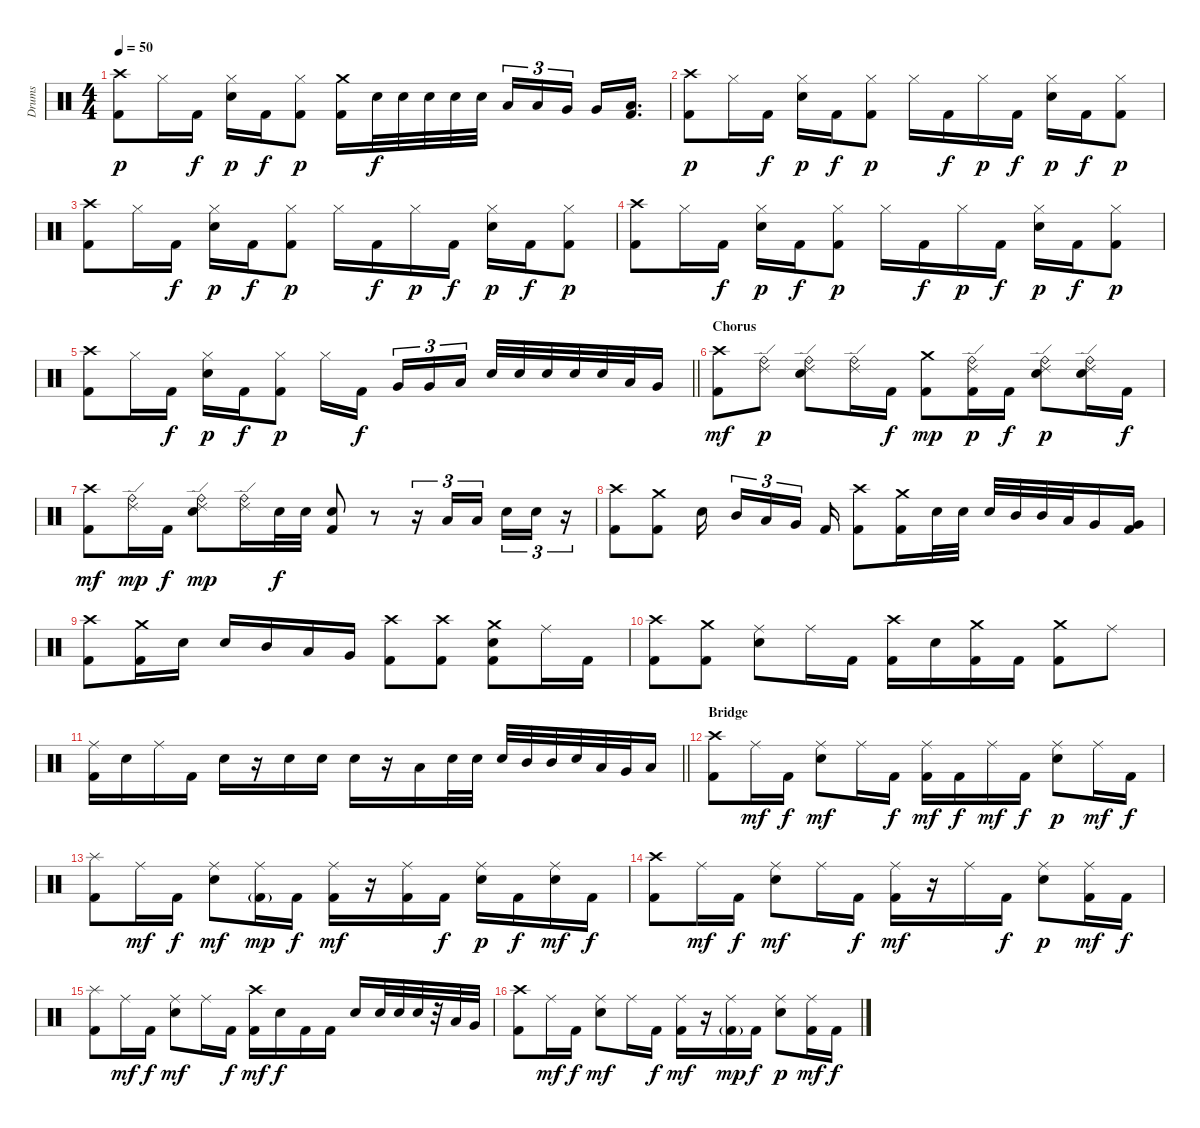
\track ("Drums" "Drums") {instrument percussion}
\staff {score}
\articulation defaults
\ts (4 4)
\tempo 50
\clef neutral
\ks c
("Crash high (hit)" "Kick (hit) 2").8{dy p} "Hi-Hat (closed)".16 "Kick (hit) 2".16{dy f} ("Hi-Hat (closed)" "Electric Snare (hit)").16{dy p} "Kick (hit) 2".16{dy f} ("Hi-Hat (closed)" "Kick (hit) 2").8{dy p} ("Crash medium (hit)" "Kick (hit) 2").16 "Electric Snare (hit)".32{dy f} "Electric Snare (hit)".32 "Electric Snare (hit)".32 "Electric Snare (hit)".32 "Electric Snare (hit)".32{beam splitsecondary} "Low Tom (hit)".16{tu (3 2)} "Low Tom (hit)".16{tu (3 2)} "Very Low Tom (hit)".16{tu (3 2) beam splitsecondary} "Very Low Tom (hit)".16 ("Low Floor Tom (hit)" "Kick (hit) 2").16{d} |
("Crash high (hit)" "Kick (hit) 2").8{dy p} "Hi-Hat (closed)".16 "Kick (hit) 2".16{dy f} ("Hi-Hat (closed)" "Electric Snare (hit)").16{dy p} "Kick (hit) 2".16{dy f} ("Hi-Hat (closed)" "Kick (hit) 2").8{dy p} "Hi-Hat (closed)".16 "Kick (hit) 2".16{dy f} "Hi-Hat (closed)".16{dy p} "Kick (hit) 2".16{dy f} ("Hi-Hat (closed)" "Electric Snare (hit)").16{dy p} "Kick (hit) 2".16{dy f} ("Hi-Hat (closed)" "Kick (hit) 2").8{dy p} |
("Crash high (hit)" "Kick (hit) 2").8 "Hi-Hat (closed)".16 "Kick (hit) 2".16{dy f} ("Hi-Hat (closed)" "Electric Snare (hit)").16{dy p} "Kick (hit) 2".16{dy f} ("Hi-Hat (closed)" "Kick (hit) 2").8{dy p} "Hi-Hat (closed)".16 "Kick (hit) 2".16{dy f} "Hi-Hat (closed)".16{dy p} "Kick (hit) 2".16{dy f} ("Hi-Hat (closed)" "Electric Snare (hit)").16{dy p} "Kick (hit) 2".16{dy f} ("Hi-Hat (closed)" "Kick (hit) 2").8{dy p} |
("Crash high (hit)" "Kick (hit) 2").8 "Hi-Hat (closed)".16 "Kick (hit) 2".16{dy f} ("Hi-Hat (closed)" "Electric Snare (hit)").16{dy p} "Kick (hit) 2".16{dy f} ("Hi-Hat (closed)" "Kick (hit) 2").8{dy p} "Hi-Hat (closed)".16 "Kick (hit) 2".16{dy f} "Hi-Hat (closed)".16{dy p} "Kick (hit) 2".16{dy f} ("Hi-Hat (closed)" "Electric Snare (hit)").16{dy p} "Kick (hit) 2".16{dy f} ("Hi-Hat (closed)" "Kick (hit) 2").8{dy p} |
\barLineRight lightlight
("Crash high (hit)" "Kick (hit) 2").8 "Hi-Hat (closed)".16 "Kick (hit) 2".16{dy f} ("Hi-Hat (closed)" "Electric Snare (hit)").16{dy p} "Kick (hit) 2".16{dy f} ("Hi-Hat (closed)" "Kick (hit) 2").8{dy p} "Hi-Hat (closed)".16 "Kick (hit) 2".16{dy f beam splitsecondary} "Very Low Tom (hit)".16{tu (3 2)} "Very Low Tom (hit)".16{tu (3 2)} "Low Floor Tom (hit)".16{tu (3 2)} "Electric Snare (hit)".32 "Electric Snare (hit)".32 "Electric Snare (hit)".32 "Electric Snare (hit)".32 "Electric Snare (hit)".32 "Low Tom (hit)".32 "Very Low Tom (hit)".16 |
\section ("" "Chorus")
("Crash high (hit)" "Kick (hit) 2").8{dy mf} ("Ride (edge) 2" "Ride (bell)").8{dy p} ("Ride (edge) 2" "Ride (bell)" "Electric Snare (hit)").8 ("Ride (edge) 2" "Ride (bell)").16 "Kick (hit) 2".16{dy f} ("Crash medium (hit)" "Kick (hit) 2").8{dy mp} ("Ride (edge) 2" "Ride (bell)" "Kick (hit) 2").16{dy p} "Kick (hit) 2".16{dy f} ("Ride (edge) 2" "Ride (bell)" "Electric Snare (hit)").8{dy p} ("Ride (edge) 2" "Ride (bell)" "Electric Snare (hit)").16 "Kick (hit) 2".16{dy f} |
("Crash high (hit)" "Kick (hit) 2").8{dy mf} ("Ride (edge) 2" "Ride (bell)").16{dy mp} "Kick (hit) 2".16{dy f} ("Ride (edge) 2" "Ride (bell)" "Electric Snare (hit)").8{dy mp} ("Ride (edge) 2" "Ride (bell)").16 "Electric Snare (hit)".32{dy f} "Electric Snare (hit)".32 ("Electric Snare (hit)" "Kick (hit) 2").8 r.8 r.16{tu (3 2)} "Low Tom (hit)".16{tu (3 2)} "Low Tom (hit)".16{tu (3 2) beam splitsecondary} "Electric Snare (hit)".16{tu (3 2)} "Electric Snare (hit)".16{tu (3 2)} r.16{tu (3 2)} |
("Crash high (hit)" "Kick (hit) 2").8 ("Crash medium (hit)" "Kick (hit) 2").8 "Electric Snare (hit)".16{beam splitsecondary} "Mid Tom (hit)".16{tu (3 2)} "Low Tom (hit)".16{tu (3 2)} "Very Low Tom (hit)".16{tu (3 2) beam splitsecondary} "Kick (hit) 2".16 ("Crash high (hit)" "Kick (hit) 2").8 ("Crash medium (hit)" "Kick (hit) 2").16 "Electric Snare (hit)".32 "Electric Snare (hit)".32 "Electric Snare (hit)".32 "Mid Tom (hit)".32 "Mid Tom (hit)".32 "Low Tom (hit)".32 "Very Low Tom (hit)".16 ("Very Low Tom (hit)" "Kick (hit) 2").16 |
("Crash high (hit)" "Kick (hit) 2").8 ("Crash medium (hit)" "Kick (hit) 2").16 "Electric Snare (hit)".16 "Electric Snare (hit)".16 "Mid Tom (hit)".16 "Low Tom (hit)".16 "Very Low Tom (hit)".16 ("Crash high (hit)" "Kick (hit) 2").8 ("Crash high (hit)" "Kick (hit) 2").8 ("Crash medium (hit)" "Electric Snare (hit)" "Kick (hit) 2").8 "Ride (middle)".16 "Kick (hit) 2".16 |
("Crash high (hit)" "Kick (hit) 2").8 ("Crash medium (hit)" "Kick (hit) 2").8 ("Ride (middle)" "Electric Snare (hit)").8 "Ride (middle)".16 "Kick (hit) 2".16 ("Crash high (hit)" "Kick (hit) 2").16 "Electric Snare (hit)".16 ("Crash medium (hit)" "Kick (hit) 2").16 "Kick (hit) 2".16 ("Crash medium (hit)" "Kick (hit) 2").8 "Ride (middle)".8 |
\barLineRight lightlight
("Ride (middle)" "Kick (hit) 2").16 "Electric Snare (hit)".16 "Ride (middle)".16 "Kick (hit) 2".16 "Electric Snare (hit)".16 r.16 "Electric Snare (hit)".16 "Electric Snare (hit)".16 "Electric Snare (hit)".16 r.16 "Low Tom (hit)".16 "Electric Snare (hit)".32 "Electric Snare (hit)".32 "Electric Snare (hit)".32 "Mid Tom (hit)".32 "Mid Tom (hit)".32 "Electric Snare (hit)".32 "Low Tom (hit)".32 "Very Low Tom (hit)".32 "Low Floor Tom (hit)".16 |
\section ("" "Bridge")
("Crash high (hit)" "Kick (hit) 2").8 "Ride (middle)".16{dy mf} "Kick (hit) 2".16{dy f} ("Ride (middle)" "Electric Snare (hit)").8{dy mf} "Ride (middle)".16 "Kick (hit) 2".16{dy f} ("Ride (middle)" "Kick (hit) 2").16{dy mf} "Kick (hit) 2".16{dy f} "Ride (middle)".16{dy mf} "Kick (hit) 2".16{dy f} ("Ride (middle)" "Electric Snare (hit)").8{dy p} "Ride (middle)".16{dy mf} "Kick (hit) 2".16{dy f} |
("Splash (hit)" "Kick (hit) 2").8 "Ride (middle)".16{dy mf} "Kick (hit) 2".16{dy f} ("Ride (middle)" "Electric Snare (hit)").8{dy mf} ("Ride (middle)" "Kick (hit) 2"{g}).16{dy mp} "Kick (hit) 2".16{dy f} ("Ride (middle)" "Kick (hit) 2").16{dy mf} r.16 ("Ride (middle)" "Kick (hit) 2").16 "Kick (hit) 2".16{dy f} ("Ride (middle)" "Electric Snare (hit)").16{dy p} "Kick (hit) 2".16{dy f} ("Ride (middle)" "Electric Snare (hit)").16{dy mf} "Kick (hit) 2".16{dy f} |
("Crash high (hit)" "Kick (hit) 2").8 "Ride (middle)".16{dy mf} "Kick (hit) 2".16{dy f} ("Ride (middle)" "Electric Snare (hit)").8{dy mf} "Ride (middle)".16 "Kick (hit) 2".16{dy f} ("Ride (middle)" "Kick (hit) 2").16{dy mf} r.16 "Ride (middle)".16 "Kick (hit) 2".16{dy f} ("Ride (middle)" "Electric Snare (hit)").8{dy p} ("Ride (middle)" "Kick (hit) 2").16{dy mf} "Kick (hit) 2".16{dy f} |
("Splash (hit)" "Kick (hit) 2").8 "Ride (middle)".16{dy mf} "Kick (hit) 2".16{dy f} ("Ride (middle)" "Electric Snare (hit)").8{dy mf} "Ride (middle)".16 "Kick (hit) 2".16{dy f} ("Crash high (hit)" "Kick (hit) 2").16{dy mf} "Electric Snare (hit)".16{dy f} "Kick (hit) 2".16 "Kick (hit) 2".16 "Electric Snare (hit)".16 "Electric Snare (hit)".32 "Electric Snare (hit)".32 "Electric Snare (hit)".32 r.32 "Low Tom (hit)".32 "Very Low Tom (hit)".32 |
("Crash high (hit)" "Kick (hit) 2").8 "Ride (middle)".16{dy mf} "Kick (hit) 2".16{dy f} ("Ride (middle)" "Electric Snare (hit)").8{dy mf} "Ride (middle)".16 "Kick (hit) 2".16{dy f} ("Ride (middle)" "Kick (hit) 2").16{dy mf} r.16 ("Ride (middle)" "Kick (hit) 2"{g}).16{dy mp} "Kick (hit) 2".16{dy f} ("Ride (middle)" "Electric Snare (hit)").8{dy p} ("Ride (middle)" "Kick (hit) 2").16{dy mf} "Kick (hit) 2".16{dy f}
